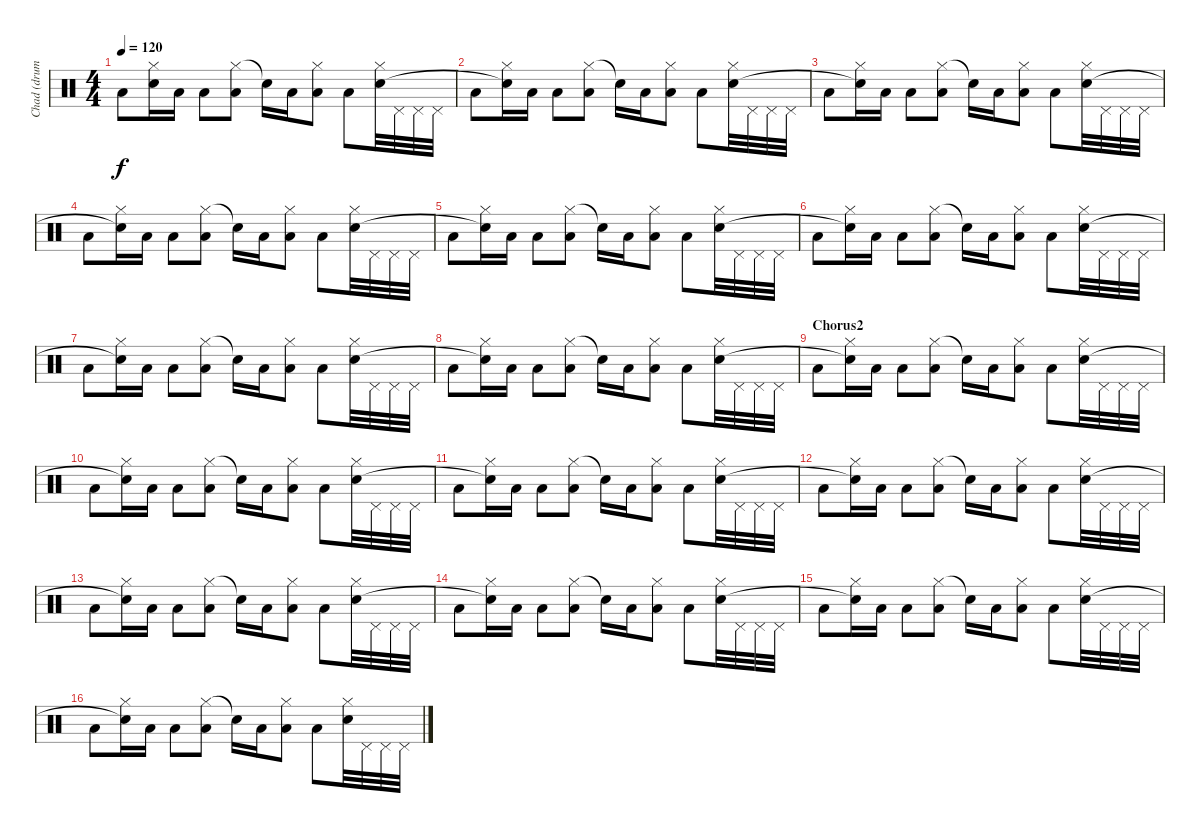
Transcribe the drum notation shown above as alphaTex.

\track ("Chad (drums)" "Chad (drum") {instrument percussion}
\staff {score}
\articulation defaults
\ts (4 4)
\tempo 120
\clef neutral
\ks c "Low Tom (hit)".8{dy f}
("Hi-Hat (closed)" "Snare (hit)"{t}).16 "Low Tom (hit)".16 "Low Floor Tom (hit)".8 ("Hi-Hat (closed)" "Low Tom (hit)").8 "Snare (hit)"{t}.16 "Low Tom (hit)".16 ("Hi-Hat (closed)" "Low Floor Tom (hit)").8 "Low Tom (hit)".8 ("Hi-Hat (closed)" "Snare (hit) 2").32 "Pedal Hi-Hat (hit)".32 "Pedal Hi-Hat (hit)".32 "Pedal Hi-Hat (hit)".32 |
"Low Tom (hit)".8 ("Hi-Hat (closed)" "Snare (hit)"{t}).16 "Low Tom (hit)".16 "Low Floor Tom (hit)".8 ("Hi-Hat (closed)" "Low Tom (hit)").8 "Snare (hit)"{t}.16 "Low Tom (hit)".16 ("Hi-Hat (closed)" "Low Floor Tom (hit)").8 "Low Tom (hit)".8 ("Hi-Hat (closed)" "Snare (hit) 2").32 "Pedal Hi-Hat (hit)".32 "Pedal Hi-Hat (hit)".32 "Pedal Hi-Hat (hit)".32 |
"Low Tom (hit)".8 ("Hi-Hat (closed)" "Snare (hit)"{t}).16 "Low Tom (hit)".16 "Low Floor Tom (hit)".8 ("Hi-Hat (closed)" "Low Tom (hit)").8 "Snare (hit)"{t}.16 "Low Tom (hit)".16 ("Hi-Hat (closed)" "Low Floor Tom (hit)").8 "Low Tom (hit)".8 ("Hi-Hat (closed)" "Snare (hit) 2").32 "Pedal Hi-Hat (hit)".32 "Pedal Hi-Hat (hit)".32 "Pedal Hi-Hat (hit)".32 |
"Low Tom (hit)".8 ("Hi-Hat (closed)" "Snare (hit)"{t}).16 "Low Tom (hit)".16 "Low Floor Tom (hit)".8 ("Hi-Hat (closed)" "Low Tom (hit)").8 "Snare (hit)"{t}.16 "Low Tom (hit)".16 ("Hi-Hat (closed)" "Low Floor Tom (hit)").8 "Low Tom (hit)".8 ("Hi-Hat (closed)" "Snare (hit) 2").32 "Pedal Hi-Hat (hit)".32 "Pedal Hi-Hat (hit)".32 "Pedal Hi-Hat (hit)".32 |
"Low Tom (hit)".8 ("Hi-Hat (closed)" "Snare (hit)"{t}).16 "Low Tom (hit)".16 "Low Floor Tom (hit)".8 ("Hi-Hat (closed)" "Low Tom (hit)").8 "Snare (hit)"{t}.16 "Low Tom (hit)".16 ("Hi-Hat (closed)" "Low Floor Tom (hit)").8 "Low Tom (hit)".8 ("Hi-Hat (closed)" "Snare (hit) 2").32 "Pedal Hi-Hat (hit)".32 "Pedal Hi-Hat (hit)".32 "Pedal Hi-Hat (hit)".32 |
"Low Tom (hit)".8 ("Hi-Hat (closed)" "Snare (hit)"{t}).16 "Low Tom (hit)".16 "Low Floor Tom (hit)".8 ("Hi-Hat (closed)" "Low Tom (hit)").8 "Snare (hit)"{t}.16 "Low Tom (hit)".16 ("Hi-Hat (closed)" "Low Floor Tom (hit)").8 "Low Tom (hit)".8 ("Hi-Hat (closed)" "Snare (hit) 2").32 "Pedal Hi-Hat (hit)".32 "Pedal Hi-Hat (hit)".32 "Pedal Hi-Hat (hit)".32 |
"Low Tom (hit)".8 ("Hi-Hat (closed)" "Snare (hit)"{t}).16 "Low Tom (hit)".16 "Low Floor Tom (hit)".8 ("Hi-Hat (closed)" "Low Tom (hit)").8 "Snare (hit)"{t}.16 "Low Tom (hit)".16 ("Hi-Hat (closed)" "Low Floor Tom (hit)").8 "Low Tom (hit)".8 ("Hi-Hat (closed)" "Snare (hit) 2").32 "Pedal Hi-Hat (hit)".32 "Pedal Hi-Hat (hit)".32 "Pedal Hi-Hat (hit)".32 |
"Low Tom (hit)".8 ("Hi-Hat (closed)" "Snare (hit)"{t}).16 "Low Tom (hit)".16 "Low Floor Tom (hit)".8 ("Hi-Hat (closed)" "Low Tom (hit)").8 "Snare (hit)"{t}.16 "Low Tom (hit)".16 ("Hi-Hat (closed)" "Low Floor Tom (hit)").8 "Low Tom (hit)".8 ("Hi-Hat (closed)" "Snare (hit) 2").32 "Pedal Hi-Hat (hit)".32 "Pedal Hi-Hat (hit)".32 "Pedal Hi-Hat (hit)".32 |
\section ("" "Chorus2")
"Low Tom (hit)".8 ("Hi-Hat (closed)" "Snare (hit)"{t}).16 "Low Tom (hit)".16 "Low Floor Tom (hit)".8 ("Hi-Hat (closed)" "Low Tom (hit)").8 "Snare (hit)"{t}.16 "Low Tom (hit)".16 ("Hi-Hat (closed)" "Low Floor Tom (hit)").8 "Low Tom (hit)".8 ("Hi-Hat (closed)" "Snare (hit) 2").32 "Pedal Hi-Hat (hit)".32 "Pedal Hi-Hat (hit)".32 "Pedal Hi-Hat (hit)".32 |
"Low Tom (hit)".8 ("Hi-Hat (closed)" "Snare (hit)"{t}).16 "Low Tom (hit)".16 "Low Floor Tom (hit)".8 ("Hi-Hat (closed)" "Low Tom (hit)").8 "Snare (hit)"{t}.16 "Low Tom (hit)".16 ("Hi-Hat (closed)" "Low Floor Tom (hit)").8 "Low Tom (hit)".8 ("Hi-Hat (closed)" "Snare (hit) 2").32 "Pedal Hi-Hat (hit)".32 "Pedal Hi-Hat (hit)".32 "Pedal Hi-Hat (hit)".32 |
"Low Tom (hit)".8 ("Hi-Hat (closed)" "Snare (hit)"{t}).16 "Low Tom (hit)".16 "Low Floor Tom (hit)".8 ("Hi-Hat (closed)" "Low Tom (hit)").8 "Snare (hit)"{t}.16 "Low Tom (hit)".16 ("Hi-Hat (closed)" "Low Floor Tom (hit)").8 "Low Tom (hit)".8 ("Hi-Hat (closed)" "Snare (hit) 2").32 "Pedal Hi-Hat (hit)".32 "Pedal Hi-Hat (hit)".32 "Pedal Hi-Hat (hit)".32 |
"Low Tom (hit)".8 ("Hi-Hat (closed)" "Snare (hit)"{t}).16 "Low Tom (hit)".16 "Low Floor Tom (hit)".8 ("Hi-Hat (closed)" "Low Tom (hit)").8 "Snare (hit)"{t}.16 "Low Tom (hit)".16 ("Hi-Hat (closed)" "Low Floor Tom (hit)").8 "Low Tom (hit)".8 ("Hi-Hat (closed)" "Snare (hit) 2").32 "Pedal Hi-Hat (hit)".32 "Pedal Hi-Hat (hit)".32 "Pedal Hi-Hat (hit)".32 |
"Low Tom (hit)".8 ("Hi-Hat (closed)" "Snare (hit)"{t}).16 "Low Tom (hit)".16 "Low Floor Tom (hit)".8 ("Hi-Hat (closed)" "Low Tom (hit)").8 "Snare (hit)"{t}.16 "Low Tom (hit)".16 ("Hi-Hat (closed)" "Low Floor Tom (hit)").8 "Low Tom (hit)".8 ("Hi-Hat (closed)" "Snare (hit) 2").32 "Pedal Hi-Hat (hit)".32 "Pedal Hi-Hat (hit)".32 "Pedal Hi-Hat (hit)".32 |
"Low Tom (hit)".8 ("Hi-Hat (closed)" "Snare (hit)"{t}).16 "Low Tom (hit)".16 "Low Floor Tom (hit)".8 ("Hi-Hat (closed)" "Low Tom (hit)").8 "Snare (hit)"{t}.16 "Low Tom (hit)".16 ("Hi-Hat (closed)" "Low Floor Tom (hit)").8 "Low Tom (hit)".8 ("Hi-Hat (closed)" "Snare (hit) 2").32 "Pedal Hi-Hat (hit)".32 "Pedal Hi-Hat (hit)".32 "Pedal Hi-Hat (hit)".32 |
"Low Tom (hit)".8 ("Hi-Hat (closed)" "Snare (hit)"{t}).16 "Low Tom (hit)".16 "Low Floor Tom (hit)".8 ("Hi-Hat (closed)" "Low Tom (hit)").8 "Snare (hit)"{t}.16 "Low Tom (hit)".16 ("Hi-Hat (closed)" "Low Floor Tom (hit)").8 "Low Tom (hit)".8 ("Hi-Hat (closed)" "Snare (hit) 2").32 "Pedal Hi-Hat (hit)".32 "Pedal Hi-Hat (hit)".32 "Pedal Hi-Hat (hit)".32 |
"Low Tom (hit)".8 ("Hi-Hat (closed)" "Snare (hit)"{t}).16 "Low Tom (hit)".16 "Low Floor Tom (hit)".8 ("Hi-Hat (closed)" "Low Tom (hit)").8 "Snare (hit)"{t}.16 "Low Tom (hit)".16 ("Hi-Hat (closed)" "Low Floor Tom (hit)").8 "Low Tom (hit)".8 ("Hi-Hat (closed)" "Snare (hit) 2").32 "Pedal Hi-Hat (hit)".32 "Pedal Hi-Hat (hit)".32 "Pedal Hi-Hat (hit)".32
